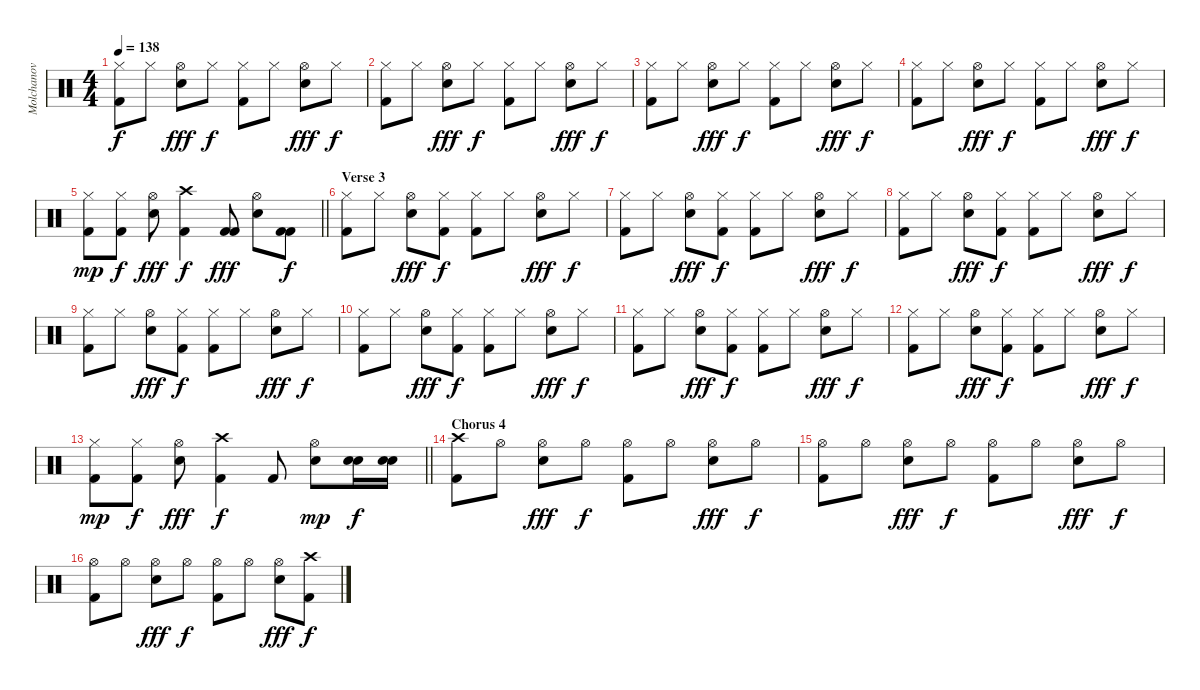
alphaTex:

\track ("Molchanov" "Molchanov") {instrument percussion}
\staff {score}
\articulation defaults
\ts (4 4)
\tempo 138
\clef neutral
\ks c
("Hi-Hat (closed)" "Kick (hit) 2").8{dy f} "Hi-Hat (closed)".8 ("Hi-Hat (open)" "Electric Snare (hit)").8{dy fff} "Hi-Hat (closed)".8{dy f} ("Hi-Hat (closed)" "Kick (hit) 2").8 "Hi-Hat (closed)".8 ("Hi-Hat (open)" "Electric Snare (hit)").8{dy fff} "Hi-Hat (closed)".8{dy f} |
("Hi-Hat (closed)" "Kick (hit) 2").8 "Hi-Hat (closed)".8 ("Hi-Hat (open)" "Electric Snare (hit)").8{dy fff} "Hi-Hat (closed)".8{dy f} ("Hi-Hat (closed)" "Kick (hit) 2").8 "Hi-Hat (closed)".8 ("Hi-Hat (open)" "Electric Snare (hit)").8{dy fff} "Hi-Hat (closed)".8{dy f} |
("Hi-Hat (closed)" "Kick (hit) 2").8 "Hi-Hat (closed)".8 ("Hi-Hat (open)" "Electric Snare (hit)").8{dy fff} "Hi-Hat (closed)".8{dy f} ("Hi-Hat (closed)" "Kick (hit) 2").8 "Hi-Hat (closed)".8 ("Hi-Hat (open)" "Electric Snare (hit)").8{dy fff} "Hi-Hat (closed)".8{dy f} |
("Hi-Hat (closed)" "Kick (hit) 2").8 "Hi-Hat (closed)".8 ("Hi-Hat (open)" "Electric Snare (hit)").8{dy fff} "Hi-Hat (closed)".8{dy f} ("Hi-Hat (closed)" "Kick (hit) 2").8 "Hi-Hat (closed)".8 ("Hi-Hat (open)" "Electric Snare (hit)").8{dy fff} "Hi-Hat (closed)".8{dy f} |
\barLineRight lightlight
("Hi-Hat (closed)" "Kick (hit) 2").8{dy mp} ("Hi-Hat (closed)" "Kick (hit) 2").8{dy f} ("Hi-Hat (open)" "Electric Snare (hit)").8{dy fff} ("Crash high (hit)" "Kick (hit) 2").4{dy f} ("Kick (hit) 2" "Kick (hit) 2").8{dy fff} ("Hi-Hat (open)" "Electric Snare (hit)").8 ("Kick (hit) 2" "Kick (hit) 2").8{dy f} |
\section ("" "Verse 3")
("Hi-Hat (closed)" "Kick (hit) 2").8 "Hi-Hat (closed)".8 ("Hi-Hat (open)" "Electric Snare (hit)").8{dy fff} ("Hi-Hat (closed)" "Kick (hit) 2").8{dy f} ("Hi-Hat (closed)" "Kick (hit) 2").8 "Hi-Hat (closed)".8 ("Hi-Hat (open)" "Electric Snare (hit)").8{dy fff} "Hi-Hat (closed)".8{dy f} |
("Hi-Hat (closed)" "Kick (hit) 2").8 "Hi-Hat (closed)".8 ("Hi-Hat (open)" "Electric Snare (hit)").8{dy fff} ("Hi-Hat (closed)" "Kick (hit) 2").8{dy f} ("Hi-Hat (closed)" "Kick (hit) 2").8 "Hi-Hat (closed)".8 ("Hi-Hat (open)" "Electric Snare (hit)").8{dy fff} "Hi-Hat (closed)".8{dy f} |
("Hi-Hat (closed)" "Kick (hit) 2").8 "Hi-Hat (closed)".8 ("Hi-Hat (open)" "Electric Snare (hit)").8{dy fff} ("Hi-Hat (closed)" "Kick (hit) 2").8{dy f} ("Hi-Hat (closed)" "Kick (hit) 2").8 "Hi-Hat (closed)".8 ("Hi-Hat (open)" "Electric Snare (hit)").8{dy fff} "Hi-Hat (closed)".8{dy f} |
("Hi-Hat (closed)" "Kick (hit) 2").8 "Hi-Hat (closed)".8 ("Hi-Hat (open)" "Electric Snare (hit)").8{dy fff} ("Hi-Hat (closed)" "Kick (hit) 2").8{dy f} ("Hi-Hat (closed)" "Kick (hit) 2").8 "Hi-Hat (closed)".8 ("Hi-Hat (open)" "Electric Snare (hit)").8{dy fff} "Hi-Hat (closed)".8{dy f} |
("Hi-Hat (closed)" "Kick (hit) 2").8 "Hi-Hat (closed)".8 ("Hi-Hat (open)" "Electric Snare (hit)").8{dy fff} ("Hi-Hat (closed)" "Kick (hit) 2").8{dy f} ("Hi-Hat (closed)" "Kick (hit) 2").8 "Hi-Hat (closed)".8 ("Hi-Hat (open)" "Electric Snare (hit)").8{dy fff} "Hi-Hat (closed)".8{dy f} |
("Hi-Hat (closed)" "Kick (hit) 2").8 "Hi-Hat (closed)".8 ("Hi-Hat (open)" "Electric Snare (hit)").8{dy fff} ("Hi-Hat (closed)" "Kick (hit) 2").8{dy f} ("Hi-Hat (closed)" "Kick (hit) 2").8 "Hi-Hat (closed)".8 ("Hi-Hat (open)" "Electric Snare (hit)").8{dy fff} "Hi-Hat (closed)".8{dy f} |
("Hi-Hat (closed)" "Kick (hit) 2").8 "Hi-Hat (closed)".8 ("Hi-Hat (open)" "Electric Snare (hit)").8{dy fff} ("Hi-Hat (closed)" "Kick (hit) 2").8{dy f} ("Hi-Hat (closed)" "Kick (hit) 2").8 "Hi-Hat (closed)".8 ("Hi-Hat (open)" "Electric Snare (hit)").8{dy fff} "Hi-Hat (closed)".8{dy f} |
\barLineRight lightlight
("Hi-Hat (closed)" "Kick (hit) 2").8{dy mp} ("Hi-Hat (closed)" "Kick (hit) 2").8{dy f} ("Hi-Hat (open)" "Electric Snare (hit)").8{dy fff} ("Crash high (hit)" "Kick (hit) 2").4{dy f} "Kick (hit) 2".8 ("Hi-Hat (open)" "Electric Snare (hit)").8{dy mp} ("Electric Snare (hit)" "Electric Snare (hit)").16{dy f} ("Electric Snare (hit)" "Electric Snare (hit)").16 |
\section ("" "Chorus 4")
("Crash high (hit)" "Kick (hit) 2").8 "Hi-Hat (open)".8 ("Hi-Hat (open)" "Electric Snare (hit)").8{dy fff} "Hi-Hat (open)".8{dy f} ("Hi-Hat (open)" "Kick (hit) 2").8 "Hi-Hat (open)".8 ("Hi-Hat (open)" "Electric Snare (hit)").8{dy fff} "Hi-Hat (open)".8{dy f} |
("Hi-Hat (open)" "Kick (hit) 2").8 "Hi-Hat (open)".8 ("Hi-Hat (open)" "Electric Snare (hit)").8{dy fff} "Hi-Hat (open)".8{dy f} ("Hi-Hat (open)" "Kick (hit) 2").8 "Hi-Hat (open)".8 ("Hi-Hat (open)" "Electric Snare (hit)").8{dy fff} "Hi-Hat (open)".8{dy f} |
("Hi-Hat (open)" "Kick (hit) 2").8 "Hi-Hat (open)".8 ("Hi-Hat (open)" "Electric Snare (hit)").8{dy fff} "Hi-Hat (open)".8{dy f} ("Hi-Hat (open)" "Kick (hit) 2").8 "Hi-Hat (open)".8 ("Hi-Hat (open)" "Electric Snare (hit)").8{dy fff} ("Crash high (hit)" "Kick (hit) 2").8{dy f}
